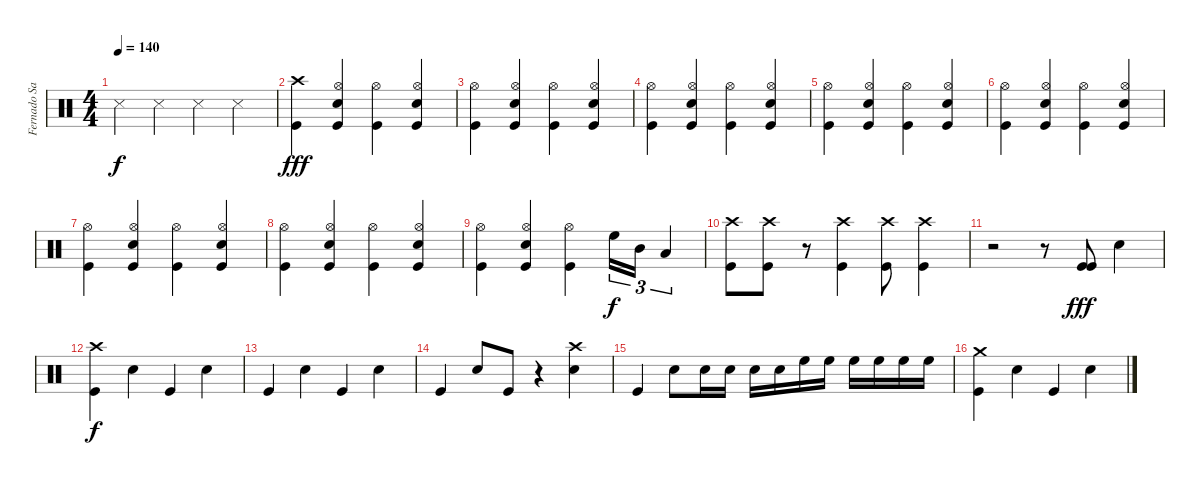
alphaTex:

\track ("Fernado Sanchez" "Fernado Sa") {instrument percussion}
\staff {score}
\articulation defaults
\ts (4 4)
\tempo 140
\clef neutral
\ks c "Snare (side stick) 3".4{dy f} "Snare (side stick) 3".4 "Snare (side stick) 3".4 "Snare (side stick) 3".4
|
("Crash high (hit)" "Kick (hit)").4{dy fff} ("Hi-Hat (open)" "Electric Snare (hit)" "Kick (hit)").4 ("Hi-Hat (open)" "Kick (hit)").4 ("Hi-Hat (open)" "Electric Snare (hit)" "Kick (hit)").4 |
("Hi-Hat (open)" "Kick (hit)").4 ("Hi-Hat (open)" "Electric Snare (hit)" "Kick (hit)").4 ("Hi-Hat (open)" "Kick (hit)").4 ("Hi-Hat (open)" "Electric Snare (hit)" "Kick (hit)").4 |
("Hi-Hat (open)" "Kick (hit)").4 ("Hi-Hat (open)" "Electric Snare (hit)" "Kick (hit)").4 ("Hi-Hat (open)" "Kick (hit)").4 ("Hi-Hat (open)" "Electric Snare (hit)" "Kick (hit)").4 |
("Hi-Hat (open)" "Kick (hit)").4 ("Hi-Hat (open)" "Electric Snare (hit)" "Kick (hit)").4 ("Hi-Hat (open)" "Kick (hit)").4 ("Hi-Hat (open)" "Electric Snare (hit)" "Kick (hit)").4 |
("Hi-Hat (open)" "Kick (hit)").4 ("Hi-Hat (open)" "Electric Snare (hit)" "Kick (hit)").4 ("Hi-Hat (open)" "Kick (hit)").4 ("Hi-Hat (open)" "Electric Snare (hit)" "Kick (hit)").4 |
("Hi-Hat (open)" "Kick (hit)").4 ("Hi-Hat (open)" "Electric Snare (hit)" "Kick (hit)").4 ("Hi-Hat (open)" "Kick (hit)").4 ("Hi-Hat (open)" "Electric Snare (hit)" "Kick (hit)").4 |
("Hi-Hat (open)" "Kick (hit)").4 ("Hi-Hat (open)" "Electric Snare (hit)" "Kick (hit)").4 ("Hi-Hat (open)" "Kick (hit)").4 ("Hi-Hat (open)" "Electric Snare (hit)" "Kick (hit)").4 |
("Hi-Hat (open)" "Kick (hit)").4 ("Hi-Hat (open)" "Electric Snare (hit)" "Kick (hit)").4 ("Hi-Hat (open)" "Kick (hit)").4 "High Floor Tom (hit)".16{tu (3 2) dy f} "Mid Tom (hit)".16{tu (3 2)} "Low Tom (hit)".4{tu (3 2)} |
("Crash high (hit)" "Kick (hit)").8 ("Crash high (hit)" "Kick (hit)").8 r.8 ("Crash high (hit)" "Kick (hit)").4 ("Crash high (hit)" "Kick (hit)").8 ("Crash high (hit)" "Kick (hit)").4 |
r.2 r.8 ("Kick (hit)" "Kick (hit)").8{dy fff} "Electric Snare (hit)".4 |
("Crash high (hit)" "Kick (hit)").4{dy f} "Electric Snare (hit)".4 "Kick (hit)".4 "Electric Snare (hit)".4 |
"Kick (hit)".4 "Electric Snare (hit)".4 "Kick (hit)".4 "Electric Snare (hit)".4 |
"Kick (hit)".4 "Electric Snare (hit)".8 "Kick (hit)".8 r.4 ("Crash high (hit)" "Electric Snare (hit)").4 |
"Kick (hit)".4 "Electric Snare (hit)".8 "Electric Snare (hit)".16 "Electric Snare (hit)".16 "Electric Snare (hit)".16 "Electric Snare (hit)".16 "High Floor Tom (hit)".16 "High Floor Tom (hit)".16 "High Floor Tom (hit)".16 "High Floor Tom (hit)".16 "High Floor Tom (hit)".16 "High Floor Tom (hit)".16 |
("Crash medium (hit)" "Kick (hit)").4 "Electric Snare (hit)".4 "Kick (hit)".4 "Electric Snare (hit)".4
